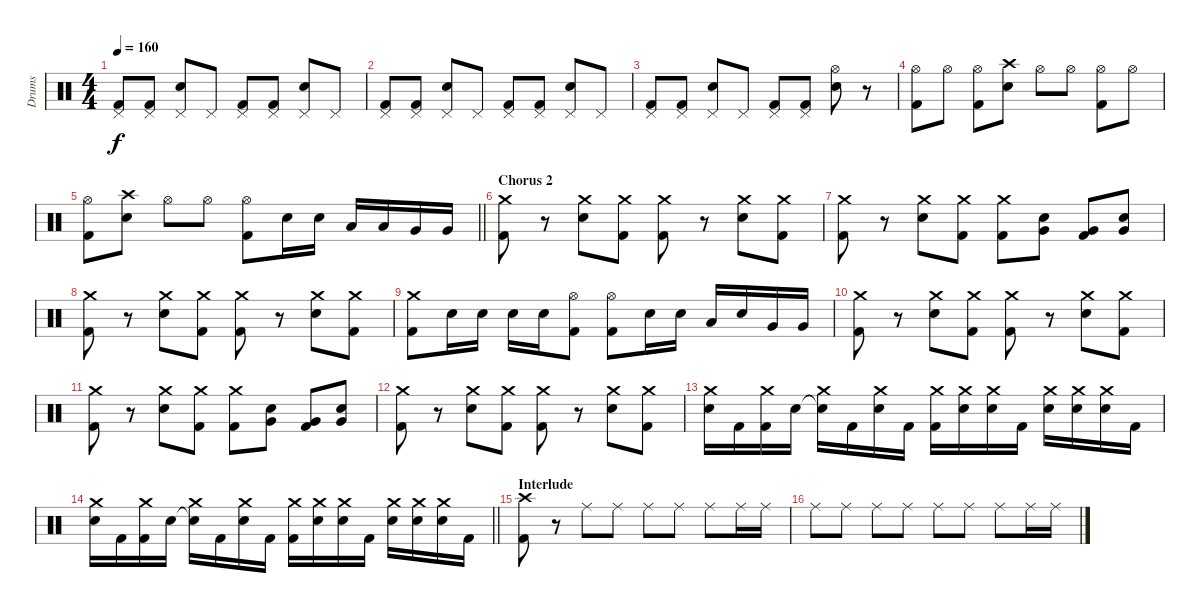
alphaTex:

\track ("Drums" "Drums") {instrument percussion}
\staff {score}
\articulation defaults
\ts (4 4)
\tempo 160
\clef neutral
\ks c
("Pedal Hi-Hat (hit)" "Kick (hit) 2").8{dy f} ("Pedal Hi-Hat (hit)" "Kick (hit) 2").8 ("Pedal Hi-Hat (hit)" "Snare (hit) 2").8 "Pedal Hi-Hat (hit)".8 ("Pedal Hi-Hat (hit)" "Kick (hit) 2").8 ("Pedal Hi-Hat (hit)" "Kick (hit) 2").8 ("Pedal Hi-Hat (hit)" "Snare (hit) 2").8 "Pedal Hi-Hat (hit)".8 |
("Pedal Hi-Hat (hit)" "Kick (hit) 2").8 ("Pedal Hi-Hat (hit)" "Kick (hit) 2").8 ("Pedal Hi-Hat (hit)" "Snare (hit) 2").8 "Pedal Hi-Hat (hit)".8 ("Pedal Hi-Hat (hit)" "Kick (hit) 2").8 ("Pedal Hi-Hat (hit)" "Kick (hit) 2").8 ("Pedal Hi-Hat (hit)" "Snare (hit) 2").8 "Pedal Hi-Hat (hit)".8 |
("Pedal Hi-Hat (hit)" "Kick (hit) 2").8 ("Pedal Hi-Hat (hit)" "Kick (hit) 2").8 ("Pedal Hi-Hat (hit)" "Snare (hit) 2").8 "Pedal Hi-Hat (hit)".8 ("Pedal Hi-Hat (hit)" "Kick (hit) 2").8 ("Pedal Hi-Hat (hit)" "Kick (hit) 2").8 ("Hi-Hat (open)" "Snare (hit) 2").8 r.8 |
("Hi-Hat (open)" "Kick (hit) 2").8 "Hi-Hat (open)".8 ("Hi-Hat (open)" "Kick (hit) 2").8 ("Crash high (hit)" "Snare (hit) 2").8 "Hi-Hat (open)".8 "Hi-Hat (open)".8 ("Hi-Hat (open)" "Kick (hit) 2").8 "Hi-Hat (open)".8 |
\barLineRight lightlight
("Hi-Hat (open)" "Kick (hit) 2").8 ("Crash high (hit)" "Snare (hit) 2").8 "Hi-Hat (open)".8 "Hi-Hat (open)".8 ("Hi-Hat (open)" "Kick (hit) 2").8 "Snare (hit) 2".16 "Snare (hit) 2".16 "Low Tom (hit)".16 "Low Tom (hit)".16 "Very Low Tom (hit)".16 "Very Low Tom (hit)".16 |
\section ("" "Chorus 2")
("Kick (hit) 2" "Crash medium (hit)").8 r.8 ("Snare (hit) 2" "Crash medium (hit)").8 ("Kick (hit) 2" "Crash medium (hit)").8 ("Kick (hit) 2" "Crash medium (hit)").8 r.8 ("Snare (hit) 2" "Crash medium (hit)").8 ("Kick (hit) 2" "Crash medium (hit)").8 |
("Kick (hit) 2" "Crash medium (hit)").8 r.8 ("Snare (hit) 2" "Crash medium (hit)").8 ("Kick (hit) 2" "Crash medium (hit)").8 ("Kick (hit) 2" "Crash medium (hit)").8 ("Snare (hit) 2" "Very Low Tom (hit)").8 ("Kick (hit) 2" "Very Low Tom (hit)").8 ("Snare (hit) 2" "Very Low Tom (hit)").8 |
("Kick (hit) 2" "Crash medium (hit)").8 r.8 ("Snare (hit) 2" "Crash medium (hit)").8 ("Kick (hit) 2" "Crash medium (hit)").8 ("Kick (hit) 2" "Crash medium (hit)").8 r.8 ("Snare (hit) 2" "Crash medium (hit)").8 ("Kick (hit) 2" "Crash medium (hit)").8 |
("Kick (hit) 2" "Crash medium (hit)").8 "Snare (hit) 2".16 "Snare (hit) 2".16 "Snare (hit) 2".16 "Snare (hit) 2".16 ("Hi-Hat (open)" "Kick (hit) 2").8 ("Hi-Hat (open)" "Kick (hit) 2").8 "Snare (hit) 2".16 "Snare (hit) 2".16 "Low Tom (hit)".16 "Snare (hit) 2".16 "Very Low Tom (hit)".16 "Very Low Tom (hit)".16 |
("Kick (hit) 2" "Crash medium (hit)").8 r.8 ("Snare (hit) 2" "Crash medium (hit)").8 ("Kick (hit) 2" "Crash medium (hit)").8 ("Kick (hit) 2" "Crash medium (hit)").8 r.8 ("Snare (hit) 2" "Crash medium (hit)").8 ("Kick (hit) 2" "Crash medium (hit)").8 |
("Kick (hit) 2" "Crash medium (hit)").8 r.8 ("Snare (hit) 2" "Crash medium (hit)").8 ("Kick (hit) 2" "Crash medium (hit)").8 ("Kick (hit) 2" "Crash medium (hit)").8 ("Snare (hit) 2" "Very Low Tom (hit)").8 ("Kick (hit) 2" "Very Low Tom (hit)").8 ("Snare (hit) 2" "Very Low Tom (hit)").8 |
("Kick (hit) 2" "Crash medium (hit)").8 r.8 ("Snare (hit) 2" "Crash medium (hit)").8 ("Kick (hit) 2" "Crash medium (hit)").8 ("Kick (hit) 2" "Crash medium (hit)").8 r.8 ("Snare (hit) 2" "Crash medium (hit)").8 ("Kick (hit) 2" "Crash medium (hit)").8 |
("Snare (hit) 2" "Crash medium (hit)").16 "Kick (hit) 2".16 ("Kick (hit) 2" "Crash medium (hit)").16 "Snare (hit) 2".16 ("Snare (hit)"{t} "Crash medium (hit)").16 "Kick (hit) 2".16 ("Snare (hit) 2" "Crash medium (hit)").16 "Kick (hit) 2".16 ("Kick (hit) 2" "Crash medium (hit)").16 ("Snare (hit) 2" "Crash medium (hit)").16 ("Snare (hit) 2" "Crash medium (hit)").16 "Kick (hit) 2".16 ("Snare (hit) 2" "Crash medium (hit)").16 ("Snare (hit) 2" "Crash medium (hit)").16 ("Snare (hit) 2" "Crash medium (hit)").16 "Kick (hit) 2".16 |
\barLineRight lightlight
("Snare (hit) 2" "Crash medium (hit)").16 "Kick (hit) 2".16 ("Kick (hit) 2" "Crash medium (hit)").16 "Snare (hit) 2".16 ("Snare (hit)"{t} "Crash medium (hit)").16 "Kick (hit) 2".16 ("Snare (hit) 2" "Crash medium (hit)").16 "Kick (hit) 2".16 ("Kick (hit) 2" "Crash medium (hit)").16 ("Snare (hit) 2" "Crash medium (hit)").16 ("Snare (hit) 2" "Crash medium (hit)").16 "Kick (hit) 2".16 ("Snare (hit) 2" "Crash medium (hit)").16 ("Snare (hit) 2" "Crash medium (hit)").16 ("Snare (hit) 2" "Crash medium (hit)").16 "Kick (hit) 2".16 |
\section ("" "Interlude")
("Crash high (hit)" "Kick (hit) 2").8 r.8 "Ride (middle)".8 "Ride (middle)".8 "Ride (middle)".8 "Ride (middle)".8 "Ride (middle)".8 "Ride (middle)".16 "Ride (middle)".16 |
"Ride (middle)".8 "Ride (middle)".8 "Ride (middle)".8 "Ride (middle)".8 "Ride (middle)".8 "Ride (middle)".8 "Ride (middle)".8 "Ride (middle)".16 "Ride (middle)".16
